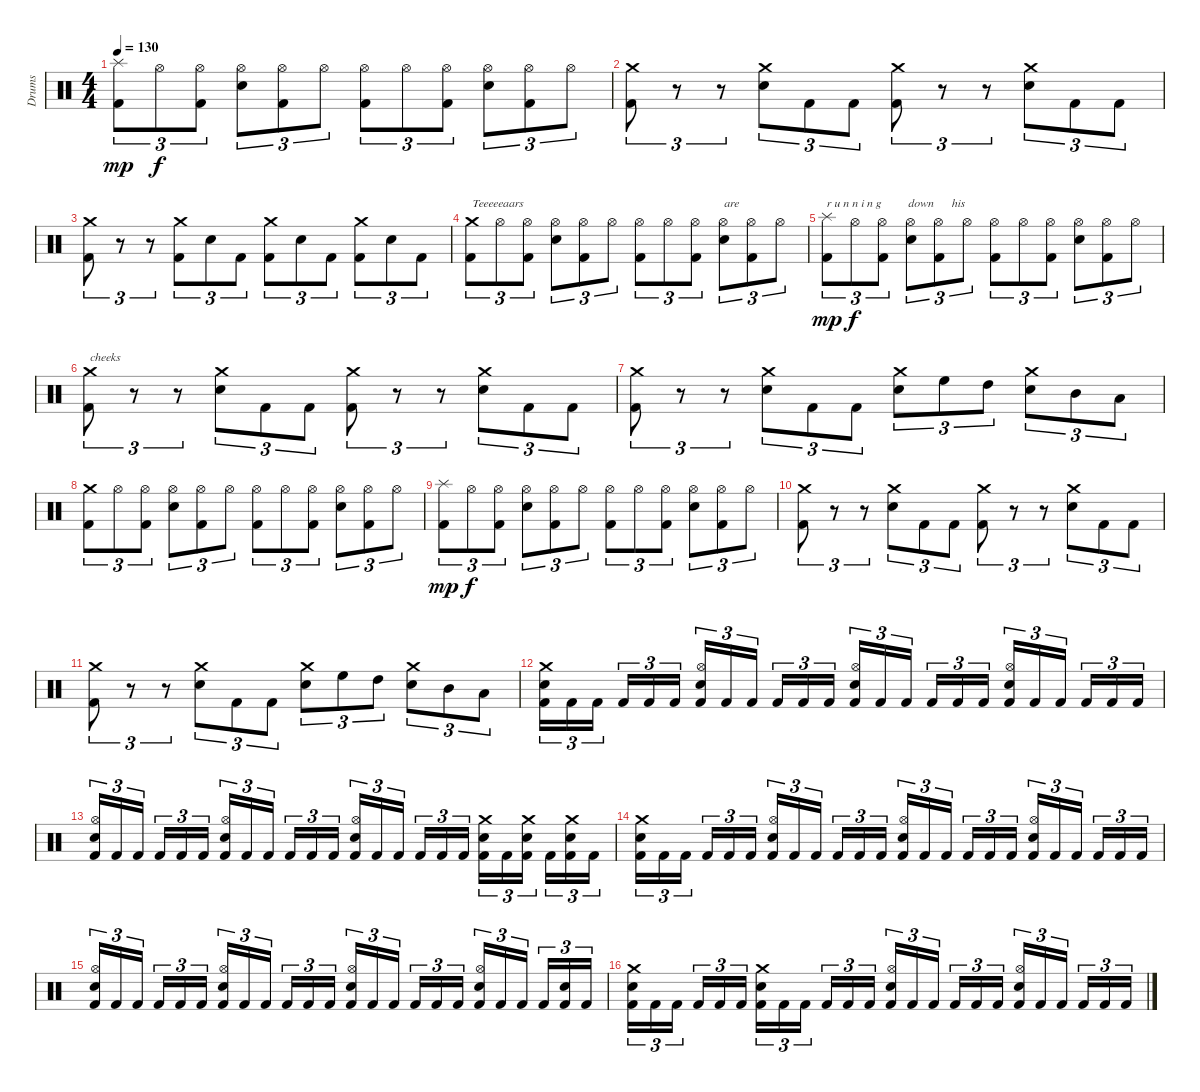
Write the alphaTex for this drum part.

\track ("Drums" "Drums") {instrument percussion}
\staff {score}
\articulation defaults
\ts (4 4)
\tempo 130
\clef neutral
\ks c
("Kick (hit) 2" "Splash (hit)").8{tu (3 2) dy mp} "Hi-Hat (open)".8{tu (3 2) dy f} ("Kick (hit) 2" "Hi-Hat (open)").8{tu (3 2)} ("Electric Snare (hit)" "Hi-Hat (open)").8{tu (3 2)} ("Kick (hit) 2" "Hi-Hat (open)").8{tu (3 2)} "Hi-Hat (open)".8{tu (3 2)} ("Kick (hit) 2" "Hi-Hat (open)").8{tu (3 2)} "Hi-Hat (open)".8{tu (3 2)} ("Kick (hit) 2" "Hi-Hat (open)").8{tu (3 2)} ("Electric Snare (hit)" "Hi-Hat (open)").8{tu (3 2)} ("Kick (hit) 2" "Hi-Hat (open)").8{tu (3 2)} "Hi-Hat (open)".8{tu (3 2)} |
("Kick (hit) 2" "Crash medium (hit)").8{tu (3 2)} r.8{tu (3 2)} r.8{tu (3 2)} ("Electric Snare (hit)" "Crash medium (hit)").8{tu (3 2)} "Kick (hit) 2".8{tu (3 2)} "Kick (hit) 2".8{tu (3 2)} ("Kick (hit) 2" "Crash medium (hit)").8{tu (3 2)} r.8{tu (3 2)} r.8{tu (3 2)} ("Electric Snare (hit)" "Crash medium (hit)").8{tu (3 2)} "Kick (hit) 2".8{tu (3 2)} "Kick (hit) 2".8{tu (3 2)} |
("Kick (hit) 2" "Crash medium (hit)").8{tu (3 2)} r.8{tu (3 2)} r.8{tu (3 2)} ("Kick (hit) 2" "Crash medium (hit)").8{tu (3 2)} "Electric Snare (hit)".8{tu (3 2)} "Kick (hit) 2".8{tu (3 2)} ("Kick (hit) 2" "Crash medium (hit)").8{tu (3 2)} "Electric Snare (hit)".8{tu (3 2)} "Kick (hit) 2".8{tu (3 2)} ("Kick (hit) 2" "Crash medium (hit)").8{tu (3 2)} "Electric Snare (hit)".8{tu (3 2)} "Kick (hit) 2".8{tu (3 2)} |
("Kick (hit) 2" "Crash medium (hit)").8{tu (3 2) txt "Teeeeeaars"} "Hi-Hat (open)".8{tu (3 2)} ("Kick (hit) 2" "Hi-Hat (open)").8{tu (3 2)} ("Electric Snare (hit)" "Hi-Hat (open)").8{tu (3 2)} ("Kick (hit) 2" "Hi-Hat (open)").8{tu (3 2)} "Hi-Hat (open)".8{tu (3 2)} ("Kick (hit) 2" "Hi-Hat (open)").8{tu (3 2)} "Hi-Hat (open)".8{tu (3 2)} ("Kick (hit) 2" "Hi-Hat (open)").8{tu (3 2)} ("Electric Snare (hit)" "Hi-Hat (open)").8{tu (3 2) txt "are"} ("Kick (hit) 2" "Hi-Hat (open)").8{tu (3 2)} "Hi-Hat (open)".8{tu (3 2)} |
("Kick (hit) 2" "Splash (hit)").8{tu (3 2) txt "r u n n i n g         down      his" dy mp} "Hi-Hat (open)".8{tu (3 2) dy f} ("Kick (hit) 2" "Hi-Hat (open)").8{tu (3 2)} ("Electric Snare (hit)" "Hi-Hat (open)").8{tu (3 2)} ("Kick (hit) 2" "Hi-Hat (open)").8{tu (3 2)} "Hi-Hat (open)".8{tu (3 2)} ("Kick (hit) 2" "Hi-Hat (open)").8{tu (3 2)} "Hi-Hat (open)".8{tu (3 2)} ("Kick (hit) 2" "Hi-Hat (open)").8{tu (3 2)} ("Electric Snare (hit)" "Hi-Hat (open)").8{tu (3 2)} ("Kick (hit) 2" "Hi-Hat (open)").8{tu (3 2)} "Hi-Hat (open)".8{tu (3 2)} |
("Kick (hit) 2" "Crash medium (hit)").8{tu (3 2) txt "cheeks"} r.8{tu (3 2)} r.8{tu (3 2)} ("Electric Snare (hit)" "Crash medium (hit)").8{tu (3 2)} "Kick (hit) 2".8{tu (3 2)} "Kick (hit) 2".8{tu (3 2)} ("Kick (hit) 2" "Crash medium (hit)").8{tu (3 2)} r.8{tu (3 2)} r.8{tu (3 2)} ("Electric Snare (hit)" "Crash medium (hit)").8{tu (3 2)} "Kick (hit) 2".8{tu (3 2)} "Kick (hit) 2".8{tu (3 2)} |
("Kick (hit) 2" "Crash medium (hit)").8{tu (3 2)} r.8{tu (3 2)} r.8{tu (3 2)} ("Electric Snare (hit)" "Crash medium (hit)").8{tu (3 2)} "Kick (hit) 2".8{tu (3 2)} "Kick (hit) 2".8{tu (3 2)} ("Electric Snare (hit)" "Crash medium (hit)").8{tu (3 2)} "High Floor Tom (hit)".8{tu (3 2)} "High Tom (hit)".8{tu (3 2)} ("Electric Snare (hit)" "Crash medium (hit)").8{tu (3 2)} "Mid Tom (hit)".8{tu (3 2)} "Low Tom (hit)".8{tu (3 2)} |
("Kick (hit) 2" "Crash medium (hit)").8{tu (3 2)} "Hi-Hat (open)".8{tu (3 2)} ("Kick (hit) 2" "Hi-Hat (open)").8{tu (3 2)} ("Electric Snare (hit)" "Hi-Hat (open)").8{tu (3 2)} ("Kick (hit) 2" "Hi-Hat (open)").8{tu (3 2)} "Hi-Hat (open)".8{tu (3 2)} ("Kick (hit) 2" "Hi-Hat (open)").8{tu (3 2)} "Hi-Hat (open)".8{tu (3 2)} ("Kick (hit) 2" "Hi-Hat (open)").8{tu (3 2)} ("Electric Snare (hit)" "Hi-Hat (open)").8{tu (3 2)} ("Kick (hit) 2" "Hi-Hat (open)").8{tu (3 2)} "Hi-Hat (open)".8{tu (3 2)} |
("Kick (hit) 2" "Splash (hit)").8{tu (3 2) dy mp} "Hi-Hat (open)".8{tu (3 2) dy f} ("Kick (hit) 2" "Hi-Hat (open)").8{tu (3 2)} ("Electric Snare (hit)" "Hi-Hat (open)").8{tu (3 2)} ("Kick (hit) 2" "Hi-Hat (open)").8{tu (3 2)} "Hi-Hat (open)".8{tu (3 2)} ("Kick (hit) 2" "Hi-Hat (open)").8{tu (3 2)} "Hi-Hat (open)".8{tu (3 2)} ("Kick (hit) 2" "Hi-Hat (open)").8{tu (3 2)} ("Electric Snare (hit)" "Hi-Hat (open)").8{tu (3 2)} ("Kick (hit) 2" "Hi-Hat (open)").8{tu (3 2)} "Hi-Hat (open)".8{tu (3 2)} |
("Kick (hit) 2" "Crash medium (hit)").8{tu (3 2)} r.8{tu (3 2)} r.8{tu (3 2)} ("Electric Snare (hit)" "Crash medium (hit)").8{tu (3 2)} "Kick (hit) 2".8{tu (3 2)} "Kick (hit) 2".8{tu (3 2)} ("Kick (hit) 2" "Crash medium (hit)").8{tu (3 2)} r.8{tu (3 2)} r.8{tu (3 2)} ("Electric Snare (hit)" "Crash medium (hit)").8{tu (3 2)} "Kick (hit) 2".8{tu (3 2)} "Kick (hit) 2".8{tu (3 2)} |
("Kick (hit) 2" "Crash medium (hit)").8{tu (3 2)} r.8{tu (3 2)} r.8{tu (3 2)} ("Electric Snare (hit)" "Crash medium (hit)").8{tu (3 2)} "Kick (hit) 2".8{tu (3 2)} "Kick (hit) 2".8{tu (3 2)} ("Electric Snare (hit)" "Crash medium (hit)").8{tu (3 2)} "High Floor Tom (hit)".8{tu (3 2)} "High Tom (hit)".8{tu (3 2)} ("Electric Snare (hit)" "Crash medium (hit)").8{tu (3 2)} "Mid Tom (hit)".8{tu (3 2)} "Low Tom (hit)".8{tu (3 2)} |
("Kick (hit) 2" "Electric Snare (hit)" "Crash medium (hit)").16{tu (3 2)} "Kick (hit) 2".16{tu (3 2)} "Kick (hit) 2".16{tu (3 2)} "Kick (hit) 2".16{tu (3 2)} "Kick (hit) 2".16{tu (3 2)} "Kick (hit) 2".16{tu (3 2)} ("Kick (hit) 2" "Electric Snare (hit)" "Hi-Hat (open)").16{tu (3 2)} "Kick (hit) 2".16{tu (3 2)} "Kick (hit) 2".16{tu (3 2)} "Kick (hit) 2".16{tu (3 2)} "Kick (hit) 2".16{tu (3 2)} "Kick (hit) 2".16{tu (3 2)} ("Kick (hit) 2" "Electric Snare (hit)" "Hi-Hat (open)").16{tu (3 2)} "Kick (hit) 2".16{tu (3 2)} "Kick (hit) 2".16{tu (3 2)} "Kick (hit) 2".16{tu (3 2)} "Kick (hit) 2".16{tu (3 2)} "Kick (hit) 2".16{tu (3 2)} ("Kick (hit) 2" "Electric Snare (hit)" "Hi-Hat (open)").16{tu (3 2)} "Kick (hit) 2".16{tu (3 2)} "Kick (hit) 2".16{tu (3 2)} "Kick (hit) 2".16{tu (3 2)} "Kick (hit) 2".16{tu (3 2)} "Kick (hit) 2".16{tu (3 2)} |
("Kick (hit) 2" "Electric Snare (hit)" "Hi-Hat (open)").16{tu (3 2)} "Kick (hit) 2".16{tu (3 2)} "Kick (hit) 2".16{tu (3 2)} "Kick (hit) 2".16{tu (3 2)} "Kick (hit) 2".16{tu (3 2)} "Kick (hit) 2".16{tu (3 2)} ("Kick (hit) 2" "Electric Snare (hit)" "Hi-Hat (open)").16{tu (3 2)} "Kick (hit) 2".16{tu (3 2)} "Kick (hit) 2".16{tu (3 2)} "Kick (hit) 2".16{tu (3 2)} "Kick (hit) 2".16{tu (3 2)} "Kick (hit) 2".16{tu (3 2)} ("Kick (hit) 2" "Electric Snare (hit)" "Hi-Hat (open)").16{tu (3 2)} "Kick (hit) 2".16{tu (3 2)} "Kick (hit) 2".16{tu (3 2)} "Kick (hit) 2".16{tu (3 2)} "Kick (hit) 2".16{tu (3 2)} "Kick (hit) 2".16{tu (3 2)} ("Kick (hit) 2" "Electric Snare (hit)" "Crash medium (hit)").16{tu (3 2)} "Kick (hit) 2".16{tu (3 2)} ("Kick (hit) 2" "Electric Snare (hit)" "Crash medium (hit)").16{tu (3 2)} "Kick (hit) 2".16{tu (3 2)} ("Kick (hit) 2" "Electric Snare (hit)" "Crash medium (hit)").16{tu (3 2)} "Kick (hit) 2".16{tu (3 2)} |
("Kick (hit) 2" "Electric Snare (hit)" "Crash medium (hit)").16{tu (3 2)} "Kick (hit) 2".16{tu (3 2)} "Kick (hit) 2".16{tu (3 2)} "Kick (hit) 2".16{tu (3 2)} "Kick (hit) 2".16{tu (3 2)} "Kick (hit) 2".16{tu (3 2)} ("Kick (hit) 2" "Electric Snare (hit)" "Hi-Hat (open)").16{tu (3 2)} "Kick (hit) 2".16{tu (3 2)} "Kick (hit) 2".16{tu (3 2)} "Kick (hit) 2".16{tu (3 2)} "Kick (hit) 2".16{tu (3 2)} "Kick (hit) 2".16{tu (3 2)} ("Kick (hit) 2" "Electric Snare (hit)" "Hi-Hat (open)").16{tu (3 2)} "Kick (hit) 2".16{tu (3 2)} "Kick (hit) 2".16{tu (3 2)} "Kick (hit) 2".16{tu (3 2)} "Kick (hit) 2".16{tu (3 2)} "Kick (hit) 2".16{tu (3 2)} ("Kick (hit) 2" "Electric Snare (hit)" "Hi-Hat (open)").16{tu (3 2)} "Kick (hit) 2".16{tu (3 2)} "Kick (hit) 2".16{tu (3 2)} "Kick (hit) 2".16{tu (3 2)} "Kick (hit) 2".16{tu (3 2)} "Kick (hit) 2".16{tu (3 2)} |
("Kick (hit) 2" "Electric Snare (hit)" "Hi-Hat (open)").16{tu (3 2)} "Kick (hit) 2".16{tu (3 2)} "Kick (hit) 2".16{tu (3 2)} "Kick (hit) 2".16{tu (3 2)} "Kick (hit) 2".16{tu (3 2)} "Kick (hit) 2".16{tu (3 2)} ("Kick (hit) 2" "Electric Snare (hit)" "Hi-Hat (open)").16{tu (3 2)} "Kick (hit) 2".16{tu (3 2)} "Kick (hit) 2".16{tu (3 2)} "Kick (hit) 2".16{tu (3 2)} "Kick (hit) 2".16{tu (3 2)} "Kick (hit) 2".16{tu (3 2)} ("Kick (hit) 2" "Electric Snare (hit)" "Hi-Hat (open)").16{tu (3 2)} "Kick (hit) 2".16{tu (3 2)} "Kick (hit) 2".16{tu (3 2)} "Kick (hit) 2".16{tu (3 2)} "Kick (hit) 2".16{tu (3 2)} "Kick (hit) 2".16{tu (3 2)} ("Kick (hit) 2" "Electric Snare (hit)" "Hi-Hat (open)").16{tu (3 2)} "Kick (hit) 2".16{tu (3 2)} "Kick (hit) 2".16{tu (3 2)} "Kick (hit) 2".16{tu (3 2)} ("Kick (hit) 2" "Electric Snare (hit)").16{tu (3 2)} "Kick (hit) 2".16{tu (3 2)} |
("Kick (hit) 2" "Electric Snare (hit)" "Crash medium (hit)").16{tu (3 2)} "Kick (hit) 2".16{tu (3 2)} "Kick (hit) 2".16{tu (3 2)} "Kick (hit) 2".16{tu (3 2)} "Kick (hit) 2".16{tu (3 2)} "Kick (hit) 2".16{tu (3 2)} ("Kick (hit) 2" "Electric Snare (hit)" "Crash medium (hit)").16{tu (3 2)} "Kick (hit) 2".16{tu (3 2)} "Kick (hit) 2".16{tu (3 2)} "Kick (hit) 2".16{tu (3 2)} "Kick (hit) 2".16{tu (3 2)} "Kick (hit) 2".16{tu (3 2)} ("Kick (hit) 2" "Electric Snare (hit)" "Hi-Hat (open)").16{tu (3 2)} "Kick (hit) 2".16{tu (3 2)} "Kick (hit) 2".16{tu (3 2)} "Kick (hit) 2".16{tu (3 2)} "Kick (hit) 2".16{tu (3 2)} "Kick (hit) 2".16{tu (3 2)} ("Kick (hit) 2" "Electric Snare (hit)" "Hi-Hat (open)").16{tu (3 2)} "Kick (hit) 2".16{tu (3 2)} "Kick (hit) 2".16{tu (3 2)} "Kick (hit) 2".16{tu (3 2)} "Kick (hit) 2".16{tu (3 2)} "Kick (hit) 2".16{tu (3 2)}
